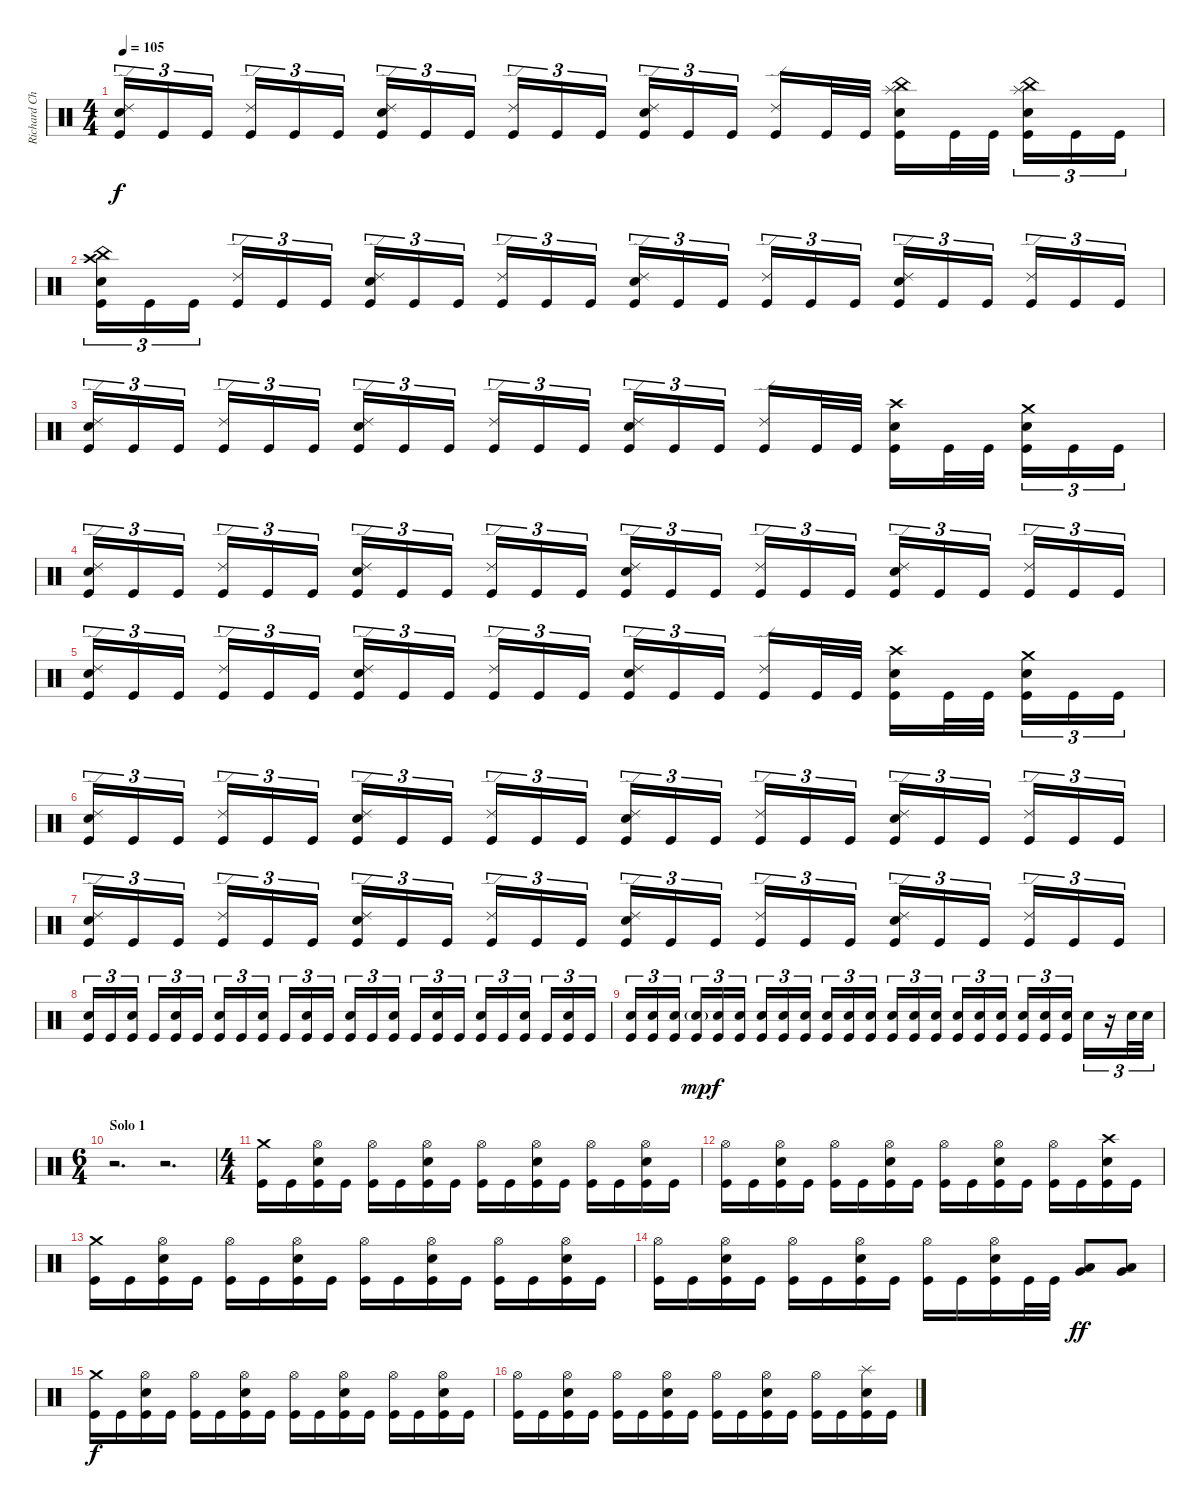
\track ("Richard Christy" "Richard Ch") {instrument percussion}
\staff {score}
\articulation defaults
\ts (4 4)
\tempo 105
\clef neutral
\ks c
("Ride (edge) 2" "Electric Snare (hit)" "Kick (hit)").16{tu (3 2) dy f} "Kick (hit)".16{tu (3 2)} "Kick (hit)".16{tu (3 2)} ("Ride (edge) 2" "Kick (hit)").16{tu (3 2)} "Kick (hit)".16{tu (3 2)} "Kick (hit)".16{tu (3 2)} ("Ride (edge) 2" "Electric Snare (hit)" "Kick (hit)").16{tu (3 2)} "Kick (hit)".16{tu (3 2)} "Kick (hit)".16{tu (3 2)} ("Ride (edge) 2" "Kick (hit)").16{tu (3 2)} "Kick (hit)".16{tu (3 2)} "Kick (hit)".16{tu (3 2)} ("Ride (edge) 2" "Electric Snare (hit)" "Kick (hit)").16{tu (3 2)} "Kick (hit)".16{tu (3 2)} "Kick (hit)".16{tu (3 2)} ("Ride (edge) 2" "Kick (hit)").16 "Kick (hit)".32 "Kick (hit)".32 ("Splash (hit)" "China (hit)" "Electric Snare (hit)" "Kick (hit)").16 "Kick (hit)".32 "Kick (hit)".32 ("Splash (hit)" "China (hit)" "Electric Snare (hit)" "Kick (hit)").16{tu (3 2)} "Kick (hit)".16{tu (3 2)} "Kick (hit)".16{tu (3 2)} |
("Crash high (hit)" "China (hit)" "Electric Snare (hit)" "Kick (hit)").16{tu (3 2)} "Kick (hit)".16{tu (3 2)} "Kick (hit)".16{tu (3 2)} ("Ride (edge) 2" "Kick (hit)").16{tu (3 2)} "Kick (hit)".16{tu (3 2)} "Kick (hit)".16{tu (3 2)} ("Ride (edge) 2" "Electric Snare (hit)" "Kick (hit)").16{tu (3 2)} "Kick (hit)".16{tu (3 2)} "Kick (hit)".16{tu (3 2)} ("Ride (edge) 2" "Kick (hit)").16{tu (3 2)} "Kick (hit)".16{tu (3 2)} "Kick (hit)".16{tu (3 2)} ("Ride (edge) 2" "Electric Snare (hit)" "Kick (hit)").16{tu (3 2)} "Kick (hit)".16{tu (3 2)} "Kick (hit)".16{tu (3 2)} ("Ride (edge) 2" "Kick (hit)").16{tu (3 2)} "Kick (hit)".16{tu (3 2)} "Kick (hit)".16{tu (3 2)} ("Ride (edge) 2" "Electric Snare (hit)" "Kick (hit)").16{tu (3 2)} "Kick (hit)".16{tu (3 2)} "Kick (hit)".16{tu (3 2)} ("Ride (edge) 2" "Kick (hit)").16{tu (3 2)} "Kick (hit)".16{tu (3 2)} "Kick (hit)".16{tu (3 2)} |
("Ride (edge) 2" "Electric Snare (hit)" "Kick (hit)").16{tu (3 2)} "Kick (hit)".16{tu (3 2)} "Kick (hit)".16{tu (3 2)} ("Ride (edge) 2" "Kick (hit)").16{tu (3 2)} "Kick (hit)".16{tu (3 2)} "Kick (hit)".16{tu (3 2)} ("Ride (edge) 2" "Electric Snare (hit)" "Kick (hit)").16{tu (3 2)} "Kick (hit)".16{tu (3 2)} "Kick (hit)".16{tu (3 2)} ("Ride (edge) 2" "Kick (hit)").16{tu (3 2)} "Kick (hit)".16{tu (3 2)} "Kick (hit)".16{tu (3 2)} ("Ride (edge) 2" "Electric Snare (hit)" "Kick (hit)").16{tu (3 2)} "Kick (hit)".16{tu (3 2)} "Kick (hit)".16{tu (3 2)} ("Ride (edge) 2" "Kick (hit)").16 "Kick (hit)".32 "Kick (hit)".32 ("Crash high (hit)" "Electric Snare (hit)" "Kick (hit)").16 "Kick (hit)".32 "Kick (hit)".32 ("Crash medium (hit)" "Electric Snare (hit)" "Kick (hit)").16{tu (3 2)} "Kick (hit)".16{tu (3 2)} "Kick (hit)".16{tu (3 2)} |
("Ride (edge) 2" "Electric Snare (hit)" "Kick (hit)").16{tu (3 2)} "Kick (hit)".16{tu (3 2)} "Kick (hit)".16{tu (3 2)} ("Ride (edge) 2" "Kick (hit)").16{tu (3 2)} "Kick (hit)".16{tu (3 2)} "Kick (hit)".16{tu (3 2)} ("Ride (edge) 2" "Electric Snare (hit)" "Kick (hit)").16{tu (3 2)} "Kick (hit)".16{tu (3 2)} "Kick (hit)".16{tu (3 2)} ("Ride (edge) 2" "Kick (hit)").16{tu (3 2)} "Kick (hit)".16{tu (3 2)} "Kick (hit)".16{tu (3 2)} ("Ride (edge) 2" "Electric Snare (hit)" "Kick (hit)").16{tu (3 2)} "Kick (hit)".16{tu (3 2)} "Kick (hit)".16{tu (3 2)} ("Ride (edge) 2" "Kick (hit)").16{tu (3 2)} "Kick (hit)".16{tu (3 2)} "Kick (hit)".16{tu (3 2)} ("Ride (edge) 2" "Electric Snare (hit)" "Kick (hit)").16{tu (3 2)} "Kick (hit)".16{tu (3 2)} "Kick (hit)".16{tu (3 2)} ("Ride (edge) 2" "Kick (hit)").16{tu (3 2)} "Kick (hit)".16{tu (3 2)} "Kick (hit)".16{tu (3 2)} |
("Ride (edge) 2" "Electric Snare (hit)" "Kick (hit)").16{tu (3 2)} "Kick (hit)".16{tu (3 2)} "Kick (hit)".16{tu (3 2)} ("Ride (edge) 2" "Kick (hit)").16{tu (3 2)} "Kick (hit)".16{tu (3 2)} "Kick (hit)".16{tu (3 2)} ("Ride (edge) 2" "Electric Snare (hit)" "Kick (hit)").16{tu (3 2)} "Kick (hit)".16{tu (3 2)} "Kick (hit)".16{tu (3 2)} ("Ride (edge) 2" "Kick (hit)").16{tu (3 2)} "Kick (hit)".16{tu (3 2)} "Kick (hit)".16{tu (3 2)} ("Ride (edge) 2" "Electric Snare (hit)" "Kick (hit)").16{tu (3 2)} "Kick (hit)".16{tu (3 2)} "Kick (hit)".16{tu (3 2)} ("Ride (edge) 2" "Kick (hit)").16 "Kick (hit)".32 "Kick (hit)".32 ("Crash high (hit)" "Electric Snare (hit)" "Kick (hit)").16 "Kick (hit)".32 "Kick (hit)".32 ("Crash medium (hit)" "Electric Snare (hit)" "Kick (hit)").16{tu (3 2)} "Kick (hit)".16{tu (3 2)} "Kick (hit)".16{tu (3 2)} |
("Ride (edge) 2" "Electric Snare (hit)" "Kick (hit)").16{tu (3 2)} "Kick (hit)".16{tu (3 2)} "Kick (hit)".16{tu (3 2)} ("Ride (edge) 2" "Kick (hit)").16{tu (3 2)} "Kick (hit)".16{tu (3 2)} "Kick (hit)".16{tu (3 2)} ("Ride (edge) 2" "Electric Snare (hit)" "Kick (hit)").16{tu (3 2)} "Kick (hit)".16{tu (3 2)} "Kick (hit)".16{tu (3 2)} ("Ride (edge) 2" "Kick (hit)").16{tu (3 2)} "Kick (hit)".16{tu (3 2)} "Kick (hit)".16{tu (3 2)} ("Ride (edge) 2" "Electric Snare (hit)" "Kick (hit)").16{tu (3 2)} "Kick (hit)".16{tu (3 2)} "Kick (hit)".16{tu (3 2)} ("Ride (edge) 2" "Kick (hit)").16{tu (3 2)} "Kick (hit)".16{tu (3 2)} "Kick (hit)".16{tu (3 2)} ("Ride (edge) 2" "Electric Snare (hit)" "Kick (hit)").16{tu (3 2)} "Kick (hit)".16{tu (3 2)} "Kick (hit)".16{tu (3 2)} ("Ride (edge) 2" "Kick (hit)").16{tu (3 2)} "Kick (hit)".16{tu (3 2)} "Kick (hit)".16{tu (3 2)} |
("Ride (edge) 2" "Electric Snare (hit)" "Kick (hit)").16{tu (3 2)} "Kick (hit)".16{tu (3 2)} "Kick (hit)".16{tu (3 2)} ("Ride (edge) 2" "Kick (hit)").16{tu (3 2)} "Kick (hit)".16{tu (3 2)} "Kick (hit)".16{tu (3 2)} ("Ride (edge) 2" "Electric Snare (hit)" "Kick (hit)").16{tu (3 2)} "Kick (hit)".16{tu (3 2)} "Kick (hit)".16{tu (3 2)} ("Ride (edge) 2" "Kick (hit)").16{tu (3 2)} "Kick (hit)".16{tu (3 2)} "Kick (hit)".16{tu (3 2)} ("Ride (edge) 2" "Electric Snare (hit)" "Kick (hit)").16{tu (3 2)} "Kick (hit)".16{tu (3 2)} "Kick (hit)".16{tu (3 2)} ("Ride (edge) 2" "Kick (hit)").16{tu (3 2)} "Kick (hit)".16{tu (3 2)} "Kick (hit)".16{tu (3 2)} ("Ride (edge) 2" "Electric Snare (hit)" "Kick (hit)").16{tu (3 2)} "Kick (hit)".16{tu (3 2)} "Kick (hit)".16{tu (3 2)} ("Ride (edge) 2" "Kick (hit)").16{tu (3 2)} "Kick (hit)".16{tu (3 2)} "Kick (hit)".16{tu (3 2)} |
("Electric Snare (hit)" "Kick (hit)").16{tu (3 2)} "Kick (hit)".16{tu (3 2)} ("Electric Snare (hit)" "Kick (hit)").16{tu (3 2)} "Kick (hit)".16{tu (3 2)} ("Electric Snare (hit)" "Kick (hit)").16{tu (3 2)} "Kick (hit)".16{tu (3 2)} ("Electric Snare (hit)" "Kick (hit)").16{tu (3 2)} "Kick (hit)".16{tu (3 2)} ("Electric Snare (hit)" "Kick (hit)").16{tu (3 2)} "Kick (hit)".16{tu (3 2)} ("Electric Snare (hit)" "Kick (hit)").16{tu (3 2)} "Kick (hit)".16{tu (3 2)} ("Electric Snare (hit)" "Kick (hit)").16{tu (3 2)} "Kick (hit)".16{tu (3 2)} ("Electric Snare (hit)" "Kick (hit)").16{tu (3 2)} "Kick (hit)".16{tu (3 2)} ("Electric Snare (hit)" "Kick (hit)").16{tu (3 2)} "Kick (hit)".16{tu (3 2)} ("Electric Snare (hit)" "Kick (hit)").16{tu (3 2)} "Kick (hit)".16{tu (3 2)} ("Electric Snare (hit)" "Kick (hit)").16{tu (3 2)} "Kick (hit)".16{tu (3 2)} ("Electric Snare (hit)" "Kick (hit)").16{tu (3 2)} "Kick (hit)".16{tu (3 2)} |
("Electric Snare (hit)" "Kick (hit)").16{tu (3 2)} ("Electric Snare (hit)" "Kick (hit)").16{tu (3 2)} ("Electric Snare (hit)" "Kick (hit)").16{tu (3 2)} ("Electric Snare (hit)"{g} "Kick (hit)").16{tu (3 2) dy mp} ("Electric Snare (hit)" "Kick (hit)").16{tu (3 2) dy f} ("Electric Snare (hit)" "Kick (hit)").16{tu (3 2)} ("Electric Snare (hit)" "Kick (hit)").16{tu (3 2)} ("Electric Snare (hit)" "Kick (hit)").16{tu (3 2)} ("Electric Snare (hit)" "Kick (hit)").16{tu (3 2)} ("Electric Snare (hit)" "Kick (hit)").16{tu (3 2)} ("Electric Snare (hit)" "Kick (hit)").16{tu (3 2)} ("Electric Snare (hit)" "Kick (hit)").16{tu (3 2)} ("Electric Snare (hit)" "Kick (hit)").16{tu (3 2)} ("Electric Snare (hit)" "Kick (hit)").16{tu (3 2)} ("Electric Snare (hit)" "Kick (hit)").16{tu (3 2)} ("Electric Snare (hit)" "Kick (hit)").16{tu (3 2)} ("Electric Snare (hit)" "Kick (hit)").16{tu (3 2)} ("Electric Snare (hit)" "Kick (hit)").16{tu (3 2)} ("Electric Snare (hit)" "Kick (hit)").16{tu (3 2)} ("Electric Snare (hit)" "Kick (hit)").16{tu (3 2)} ("Electric Snare (hit)" "Kick (hit)").16{tu (3 2)} "Electric Snare (hit)".16{tu (3 2)} r.16{tu (3 2)} "Electric Snare (hit)".32{tu (3 2)} "Electric Snare (hit)".32{tu (3 2)} |
\ts (6 4)
\section ("" "Solo 1")
r.2{d} r.2{d} |
\ts (4 4)
("Crash medium (hit)" "Kick (hit)").16 "Kick (hit)".16 ("Hi-Hat (open)" "Electric Snare (hit)" "Kick (hit)").16 "Kick (hit)".16 ("Hi-Hat (open)" "Kick (hit)").16 "Kick (hit)".16 ("Hi-Hat (open)" "Electric Snare (hit)" "Kick (hit)").16 "Kick (hit)".16 ("Hi-Hat (open)" "Kick (hit)").16 "Kick (hit)".16 ("Hi-Hat (open)" "Electric Snare (hit)" "Kick (hit)").16 "Kick (hit)".16 ("Hi-Hat (open)" "Kick (hit)").16 "Kick (hit)".16 ("Hi-Hat (open)" "Electric Snare (hit)" "Kick (hit)").16 "Kick (hit)".16 |
("Hi-Hat (open)" "Kick (hit)").16 "Kick (hit)".16 ("Hi-Hat (open)" "Electric Snare (hit)" "Kick (hit)").16 "Kick (hit)".16 ("Hi-Hat (open)" "Kick (hit)").16 "Kick (hit)".16 ("Hi-Hat (open)" "Electric Snare (hit)" "Kick (hit)").16 "Kick (hit)".16 ("Hi-Hat (open)" "Kick (hit)").16 "Kick (hit)".16 ("Hi-Hat (open)" "Electric Snare (hit)" "Kick (hit)").16 "Kick (hit)".16 ("Hi-Hat (open)" "Kick (hit)").16 "Kick (hit)".16 ("Crash high (hit)" "Electric Snare (hit)" "Kick (hit)").16 "Kick (hit)".16 |
("Crash medium (hit)" "Kick (hit)").16 "Kick (hit)".16 ("Hi-Hat (open)" "Electric Snare (hit)" "Kick (hit)").16 "Kick (hit)".16 ("Hi-Hat (open)" "Kick (hit)").16 "Kick (hit)".16 ("Hi-Hat (open)" "Electric Snare (hit)" "Kick (hit)").16 "Kick (hit)".16 ("Hi-Hat (open)" "Kick (hit)").16 "Kick (hit)".16 ("Hi-Hat (open)" "Electric Snare (hit)" "Kick (hit)").16 "Kick (hit)".16 ("Hi-Hat (open)" "Kick (hit)").16 "Kick (hit)".16 ("Hi-Hat (open)" "Electric Snare (hit)" "Kick (hit)").16 "Kick (hit)".16 |
("Hi-Hat (open)" "Kick (hit)").16 "Kick (hit)".16 ("Hi-Hat (open)" "Electric Snare (hit)" "Kick (hit)").16 "Kick (hit)".16 ("Hi-Hat (open)" "Kick (hit)").16 "Kick (hit)".16 ("Hi-Hat (open)" "Electric Snare (hit)" "Kick (hit)").16 "Kick (hit)".16 ("Hi-Hat (open)" "Kick (hit)").16 "Kick (hit)".16 ("Hi-Hat (open)" "Electric Snare (hit)" "Kick (hit)").16 "Kick (hit)".32 "Kick (hit)".32 ("Very Low Tom (hit)" "Low Floor Tom (hit)").8{dy ff} ("Very Low Tom (hit)" "Low Floor Tom (hit)").8 |
("Crash medium (hit)" "Kick (hit)").16{dy f} "Kick (hit)".16 ("Hi-Hat (open)" "Electric Snare (hit)" "Kick (hit)").16 "Kick (hit)".16 ("Hi-Hat (open)" "Kick (hit)").16 "Kick (hit)".16 ("Hi-Hat (open)" "Electric Snare (hit)" "Kick (hit)").16 "Kick (hit)".16 ("Hi-Hat (open)" "Kick (hit)").16 "Kick (hit)".16 ("Hi-Hat (open)" "Electric Snare (hit)" "Kick (hit)").16 "Kick (hit)".16 ("Hi-Hat (open)" "Kick (hit)").16 "Kick (hit)".16 ("Hi-Hat (open)" "Electric Snare (hit)" "Kick (hit)").16 "Kick (hit)".16 |
("Hi-Hat (open)" "Kick (hit)").16 "Kick (hit)".16 ("Hi-Hat (open)" "Electric Snare (hit)" "Kick (hit)").16 "Kick (hit)".16 ("Hi-Hat (open)" "Kick (hit)").16 "Kick (hit)".16 ("Hi-Hat (open)" "Electric Snare (hit)" "Kick (hit)").16 "Kick (hit)".16 ("Hi-Hat (open)" "Kick (hit)").16 "Kick (hit)".16 ("Hi-Hat (open)" "Electric Snare (hit)" "Kick (hit)").16 "Kick (hit)".16 ("Hi-Hat (open)" "Kick (hit)").16 "Kick (hit)".16 ("Splash (hit)" "Electric Snare (hit)" "Kick (hit)").16 "Kick (hit)".16
